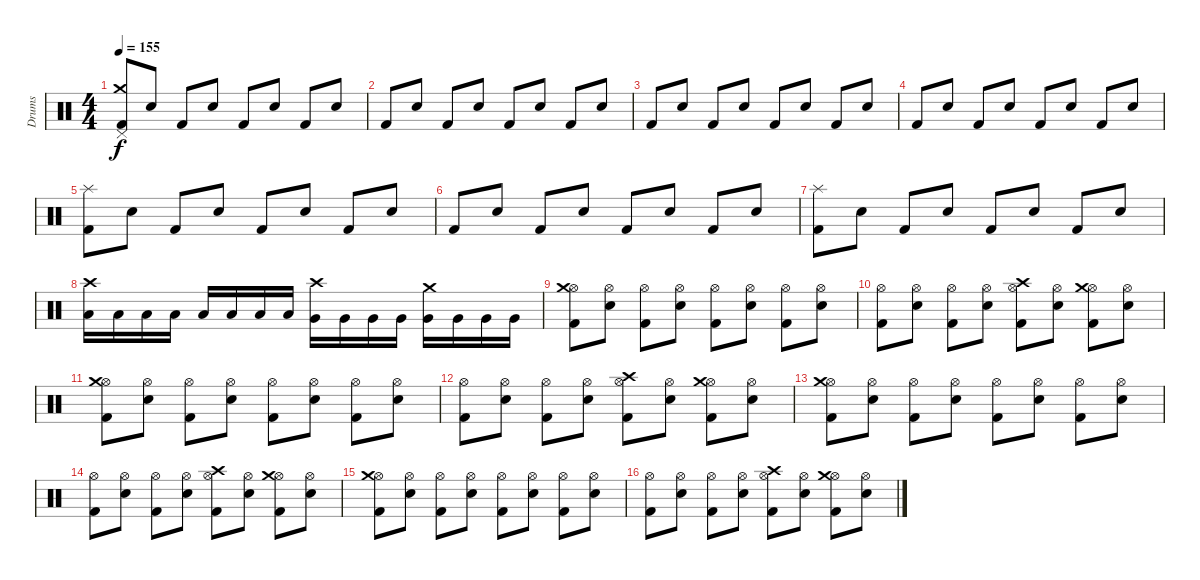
\track ("Drums" "Drums") {instrument percussion}
\staff {score}
\articulation defaults
\ts (4 4)
\tempo 155
\clef neutral
\ks c
("Pedal Hi-Hat (hit)" "Crash medium (hit)" "Kick (hit) 2").8{dy f} "Electric Snare (hit)".8 "Kick (hit) 2".8 "Electric Snare (hit)".8 "Kick (hit) 2".8 "Electric Snare (hit)".8 "Kick (hit) 2".8 "Electric Snare (hit)".8 |
"Kick (hit) 2".8 "Electric Snare (hit)".8 "Kick (hit) 2".8 "Electric Snare (hit)".8 "Kick (hit) 2".8 "Electric Snare (hit)".8 "Kick (hit) 2".8 "Electric Snare (hit)".8 |
"Kick (hit) 2".8 "Electric Snare (hit)".8 "Kick (hit) 2".8 "Electric Snare (hit)".8 "Kick (hit) 2".8 "Electric Snare (hit)".8 "Kick (hit) 2".8 "Electric Snare (hit)".8 |
"Kick (hit) 2".8 "Electric Snare (hit)".8 "Kick (hit) 2".8 "Electric Snare (hit)".8 "Kick (hit) 2".8 "Electric Snare (hit)".8 "Kick (hit) 2".8 "Electric Snare (hit)".8 |
("Splash (hit)" "Kick (hit) 2").8 "Electric Snare (hit)".8 "Kick (hit) 2".8 "Electric Snare (hit)".8 "Kick (hit) 2".8 "Electric Snare (hit)".8 "Kick (hit) 2".8 "Electric Snare (hit)".8 |
"Kick (hit) 2".8 "Electric Snare (hit)".8 "Kick (hit) 2".8 "Electric Snare (hit)".8 "Kick (hit) 2".8 "Electric Snare (hit)".8 "Kick (hit) 2".8 "Electric Snare (hit)".8 |
("Splash (hit)" "Kick (hit) 2").8 "Electric Snare (hit)".8 "Kick (hit) 2".8 "Electric Snare (hit)".8 "Kick (hit) 2".8 "Electric Snare (hit)".8 "Kick (hit) 2".8 "Electric Snare (hit)".8 |
("Crash high (hit)" "Low Tom (hit)").16 "Low Tom (hit)".16 "Low Tom (hit)".16 "Low Tom (hit)".16 "Low Tom (hit)".16 "Low Tom (hit)".16 "Low Tom (hit)".16 "Low Tom (hit)".16 ("Crash high (hit)" "Very Low Tom (hit)").16 "Very Low Tom (hit)".16 "Very Low Tom (hit)".16 "Very Low Tom (hit)".16 ("Crash medium (hit)" "Very Low Tom (hit)").16 "Very Low Tom (hit)".16 "Very Low Tom (hit)".16 "Very Low Tom (hit)".16 |
("Hi-Hat (open)" "Crash medium (hit)" "Kick (hit) 2").8 ("Hi-Hat (open)" "Electric Snare (hit)").8 ("Hi-Hat (open)" "Kick (hit) 2").8 ("Hi-Hat (open)" "Electric Snare (hit)").8 ("Hi-Hat (open)" "Kick (hit) 2").8 ("Hi-Hat (open)" "Electric Snare (hit)").8 ("Hi-Hat (open)" "Kick (hit) 2").8 ("Hi-Hat (open)" "Electric Snare (hit)").8 |
("Hi-Hat (open)" "Kick (hit) 2").8 ("Hi-Hat (open)" "Electric Snare (hit)").8 ("Hi-Hat (open)" "Kick (hit) 2").8 ("Hi-Hat (open)" "Electric Snare (hit)").8 ("Hi-Hat (open)" "Crash high (hit)" "Kick (hit) 2").8 ("Hi-Hat (open)" "Electric Snare (hit)").8 ("Hi-Hat (open)" "Crash medium (hit)" "Kick (hit) 2").8 ("Hi-Hat (open)" "Electric Snare (hit)").8 |
("Hi-Hat (open)" "Crash medium (hit)" "Kick (hit) 2").8 ("Hi-Hat (open)" "Electric Snare (hit)").8 ("Hi-Hat (open)" "Kick (hit) 2").8 ("Hi-Hat (open)" "Electric Snare (hit)").8 ("Hi-Hat (open)" "Kick (hit) 2").8 ("Hi-Hat (open)" "Electric Snare (hit)").8 ("Hi-Hat (open)" "Kick (hit) 2").8 ("Hi-Hat (open)" "Electric Snare (hit)").8 |
("Hi-Hat (open)" "Kick (hit) 2").8 ("Hi-Hat (open)" "Electric Snare (hit)").8 ("Hi-Hat (open)" "Kick (hit) 2").8 ("Hi-Hat (open)" "Electric Snare (hit)").8 ("Hi-Hat (open)" "Crash high (hit)" "Kick (hit) 2").8 ("Hi-Hat (open)" "Electric Snare (hit)").8 ("Hi-Hat (open)" "Crash medium (hit)" "Kick (hit) 2").8 ("Hi-Hat (open)" "Electric Snare (hit)").8 |
("Hi-Hat (open)" "Crash medium (hit)" "Kick (hit) 2").8 ("Hi-Hat (open)" "Electric Snare (hit)").8 ("Hi-Hat (open)" "Kick (hit) 2").8 ("Hi-Hat (open)" "Electric Snare (hit)").8 ("Hi-Hat (open)" "Kick (hit) 2").8 ("Hi-Hat (open)" "Electric Snare (hit)").8 ("Hi-Hat (open)" "Kick (hit) 2").8 ("Hi-Hat (open)" "Electric Snare (hit)").8 |
("Hi-Hat (open)" "Kick (hit) 2").8 ("Hi-Hat (open)" "Electric Snare (hit)").8 ("Hi-Hat (open)" "Kick (hit) 2").8 ("Hi-Hat (open)" "Electric Snare (hit)").8 ("Hi-Hat (open)" "Crash high (hit)" "Kick (hit) 2").8 ("Hi-Hat (open)" "Electric Snare (hit)").8 ("Hi-Hat (open)" "Crash medium (hit)" "Kick (hit) 2").8 ("Hi-Hat (open)" "Electric Snare (hit)").8 |
("Hi-Hat (open)" "Crash medium (hit)" "Kick (hit) 2").8 ("Hi-Hat (open)" "Electric Snare (hit)").8 ("Hi-Hat (open)" "Kick (hit) 2").8 ("Hi-Hat (open)" "Electric Snare (hit)").8 ("Hi-Hat (open)" "Kick (hit) 2").8 ("Hi-Hat (open)" "Electric Snare (hit)").8 ("Hi-Hat (open)" "Kick (hit) 2").8 ("Hi-Hat (open)" "Electric Snare (hit)").8 |
("Hi-Hat (open)" "Kick (hit) 2").8 ("Hi-Hat (open)" "Electric Snare (hit)").8 ("Hi-Hat (open)" "Kick (hit) 2").8 ("Hi-Hat (open)" "Electric Snare (hit)").8 ("Hi-Hat (open)" "Crash high (hit)" "Kick (hit) 2").8 ("Hi-Hat (open)" "Electric Snare (hit)").8 ("Hi-Hat (open)" "Crash medium (hit)" "Kick (hit) 2").8 ("Hi-Hat (open)" "Electric Snare (hit)").8
